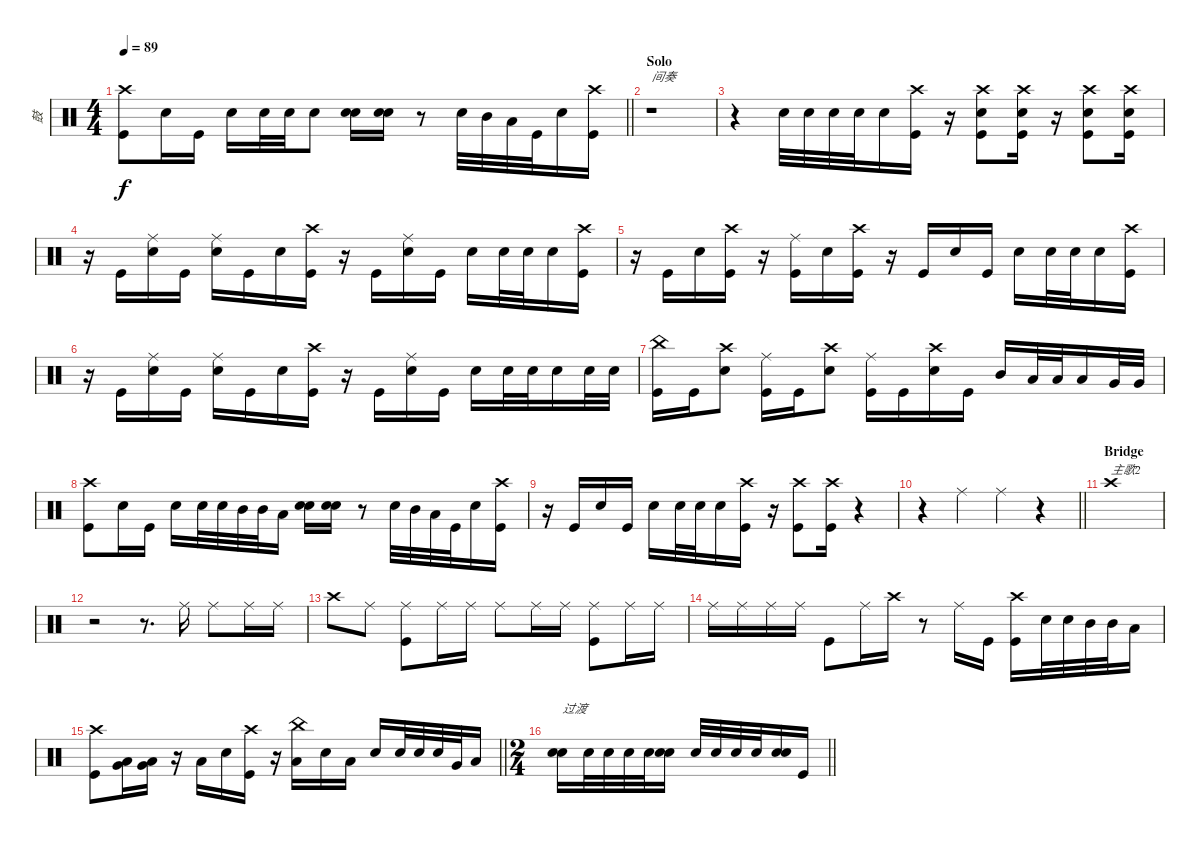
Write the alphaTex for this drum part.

\track ("鼓" "鼓") {instrument percussion}
\staff {score}
\articulation defaults
\ts (4 4)
\tempo 89
\clef neutral
\barLineRight lightlight
\ks c
("Crash high (hit)" "Kick (hit)").8{dy f} "Snare (hit) 2".16 "Kick (hit)".16 "Snare (hit) 2".16 "Snare (hit) 2".32 "Snare (hit) 2".32 "Snare (hit) 2".8 ("Snare (hit) 2" "Snare (hit) 2").16 ("Snare (hit) 2" "Snare (hit) 2").16 r.8 "Snare (hit) 2".32 "Mid Tom (hit)".32 "Low Tom (hit)".32 "Kick (hit)".32 "Snare (hit) 2".16 ("Kick (hit)" "Crash high (hit)").16 |
\section ("" "Solo")
r.1{txt "间奏"} |
r.4 "Snare (hit) 2".32 "Snare (hit) 2".32 "Snare (hit) 2".32 "Snare (hit) 2".32 "Snare (hit) 2".16 ("Kick (hit)" "Crash high (hit)").16 r.16 ("Kick (hit)" "Crash high (hit)" "Snare (hit) 2").8 ("Kick (hit)" "Crash high (hit)" "Snare (hit) 2").16 r.16 ("Kick (hit)" "Crash high (hit)" "Snare (hit) 2").8 ("Kick (hit)" "Crash high (hit)" "Snare (hit) 2").16 |
r.16 "Kick (hit)".16 ("Snare (hit) 2" "Ride (middle)").16 "Kick (hit)".16 ("Snare (hit) 2" "Ride (middle)").16 "Kick (hit)".16 "Snare (hit) 2".16 ("Kick (hit)" "Crash high (hit)").16 r.16 "Kick (hit)".16 ("Snare (hit) 2" "Ride (middle)").16 "Kick (hit)".16 "Snare (hit) 2".16 "Snare (hit) 2".32 "Snare (hit) 2".32 "Snare (hit) 2".16 ("Kick (hit)" "Crash high (hit)").16 |
r.16 "Kick (hit)".16 "Snare (hit) 2".16 ("Kick (hit)" "Crash high (hit)").16 r.16 ("Ride (middle)" "Kick (hit)").16 "Snare (hit) 2".16 ("Kick (hit)" "Crash high (hit)").16 r.16 "Kick (hit)".16 "Snare (hit) 2".16 "Kick (hit)".16 "Snare (hit) 2".16 "Snare (hit) 2".32 "Snare (hit) 2".32 "Snare (hit) 2".16 ("Kick (hit)" "Crash high (hit)").16 |
r.16 "Kick (hit)".16 ("Snare (hit) 2" "Ride (middle)").16 "Kick (hit)".16 ("Snare (hit) 2" "Ride (middle)").16 "Kick (hit)".16 "Snare (hit) 2".16 ("Kick (hit)" "Crash high (hit)").16 r.16 "Kick (hit)".16 ("Snare (hit) 2" "Ride (middle)").16 "Kick (hit)".16 "Snare (hit) 2".16 "Snare (hit) 2".32 "Snare (hit) 2".32 "Snare (hit) 2".16 "Snare (hit) 2".32 "Snare (hit) 2".32 |
("China (hit)" "Kick (hit)").16 "Kick (hit)".16 ("Snare (hit) 2" "Crash high (hit)").8 ("Ride (middle)" "Kick (hit)").16 "Kick (hit)".16 ("Snare (hit) 2" "Crash high (hit)").8 ("Ride (middle)" "Kick (hit)").16 "Kick (hit)".16 ("Snare (hit) 2" "Crash high (hit)").16 "Kick (hit)".16 "Mid Tom (hit)".16 "Low Tom (hit)".32 "Low Tom (hit)".32 "Low Tom (hit)".16 "Very Low Tom (hit)".32 "Very Low Tom (hit)".32 |
("Crash high (hit)" "Kick (hit)").8 "Snare (hit) 2".16 "Kick (hit)".16 "Snare (hit) 2".16 "Snare (hit) 2".32 "Snare (hit) 2".32 "Mid Tom (hit)".32 "Mid Tom (hit)".32 "Low Tom (hit)".16 ("Snare (hit) 2" "Snare (hit) 2").16 ("Snare (hit) 2" "Snare (hit) 2").16 r.8 "Snare (hit) 2".32 "Mid Tom (hit)".32 "Low Tom (hit)".32 "Kick (hit)".32 "Snare (hit) 2".16 ("Kick (hit)" "Crash high (hit)").16 |
r.16 "Kick (hit)".16 "Snare (hit) 2".16 "Kick (hit)".16 "Snare (hit) 2".16 "Snare (hit) 2".32 "Snare (hit) 2".32 "Snare (hit) 2".16 ("Kick (hit)" "Crash high (hit)").16 r.16 ("Kick (hit)" "Crash high (hit)").8 ("Kick (hit)" "Crash high (hit)").16 r.4 |
\barLineRight lightlight
r.4 "Ride (middle)".4 "Ride (middle)".4 r.4 |
\section ("" "Bridge")
"Crash high (hit)".1{txt "主歌2"} |
r.2 r.8{d} "Ride (middle)".16 "Ride (middle)".8 "Ride (middle)".16 "Ride (middle)".16 |
"Crash high (hit)".8 "Ride (middle)".8 ("Kick (hit)" "Ride (middle)").8 "Ride (middle)".16 "Ride (middle)".16 "Ride (middle)".8 "Ride (middle)".16 "Ride (middle)".16 ("Kick (hit)" "Ride (middle)").8 "Ride (middle)".16 "Ride (middle)".16 |
"Ride (middle)".16 "Ride (middle)".16 "Ride (middle)".16 "Ride (middle)".16 "Kick (hit)".8 "Ride (middle)".16 "Crash high (hit)".16 r.8 "Ride (middle)".16 "Kick (hit)".16 ("Crash high (hit)" "Kick (hit)").16 "Snare (hit) 2".32 "Snare (hit) 2".32 "Mid Tom (hit)".32 "Mid Tom (hit)".32 "Low Tom (hit)".16 |
\barLineRight lightlight
("Crash high (hit)" "Kick (hit)").8 ("Very Low Tom (hit)" "Low Floor Tom (hit)").16 ("Very Low Tom (hit)" "Low Floor Tom (hit)").16 r.16 "Low Floor Tom (hit)".16 "Snare (hit) 2".16 ("Kick (hit)" "Crash high (hit)").16 r.16 ("Low Floor Tom (hit)" "China (hit)").16 "Snare (hit) 2".16 "Low Floor Tom (hit)".16 "Snare (hit) 2".16 "Snare (hit) 2".32 "Snare (hit) 2".32 "Snare (hit) 2".32 "Very Low Tom (hit)".32 "Low Floor Tom (hit)".16 |
\ts (2 4)
\barLineRight lightlight
("Snare (hit) 2" "Snare (hit) 2").16{txt "过渡"} "Snare (hit) 2".32 "Snare (hit) 2".32 "Snare (hit) 2".32 "Snare (hit) 2".32 ("Snare (hit) 2" "Snare (hit) 2").16 "Snare (hit) 2".32 "Snare (hit) 2".32 "Snare (hit) 2".32 "Snare (hit) 2".32 ("Snare (hit) 2" "Snare (hit) 2").16 "Kick (hit)".16
